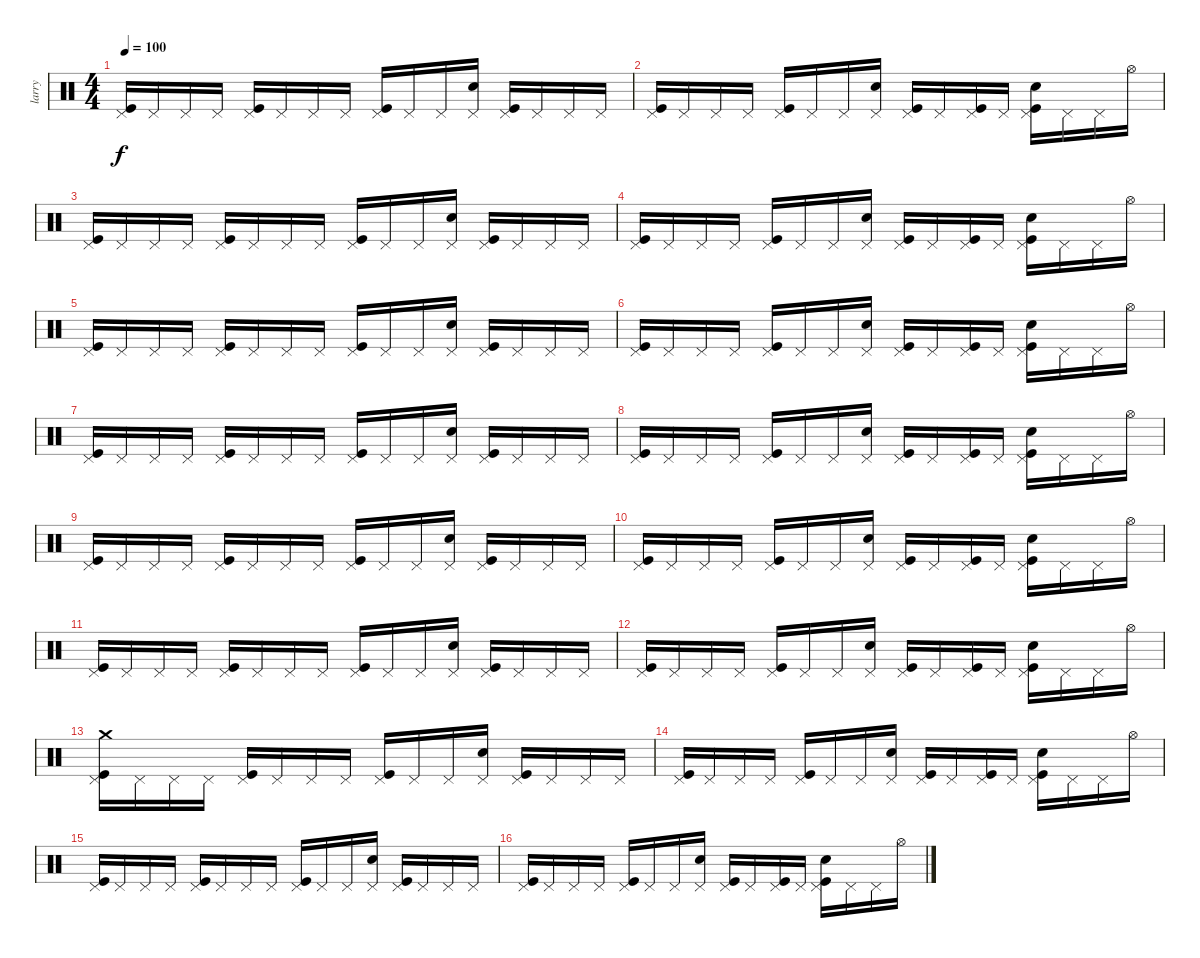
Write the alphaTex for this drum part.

\track ("larry" "larry") {instrument percussion}
\staff {score}
\articulation defaults
\ts (4 4)
\tempo 100
\clef neutral
\ks c
("Pedal Hi-Hat (hit)" "Kick (hit)").16{dy f} "Pedal Hi-Hat (hit)".16 "Pedal Hi-Hat (hit)".16 "Pedal Hi-Hat (hit)".16 ("Pedal Hi-Hat (hit)" "Kick (hit)").16 "Pedal Hi-Hat (hit)".16 "Pedal Hi-Hat (hit)".16 "Pedal Hi-Hat (hit)".16 ("Pedal Hi-Hat (hit)" "Kick (hit)").16 "Pedal Hi-Hat (hit)".16 "Pedal Hi-Hat (hit)".16 ("Pedal Hi-Hat (hit)" "Metronome (bell)").16 ("Pedal Hi-Hat (hit)" "Kick (hit)").16 "Pedal Hi-Hat (hit)".16 "Pedal Hi-Hat (hit)".16 "Pedal Hi-Hat (hit)".16 |
("Pedal Hi-Hat (hit)" "Kick (hit)").16 "Pedal Hi-Hat (hit)".16 "Pedal Hi-Hat (hit)".16 "Pedal Hi-Hat (hit)".16 ("Pedal Hi-Hat (hit)" "Kick (hit)").16 "Pedal Hi-Hat (hit)".16 "Pedal Hi-Hat (hit)".16 ("Pedal Hi-Hat (hit)" "Metronome (bell)").16 ("Pedal Hi-Hat (hit)" "Kick (hit)").16 "Pedal Hi-Hat (hit)".16 ("Pedal Hi-Hat (hit)" "Kick (hit)").16 "Pedal Hi-Hat (hit)".16 ("Pedal Hi-Hat (hit)" "Kick (hit)" "Metronome (bell)").16 "Pedal Hi-Hat (hit)".16 "Pedal Hi-Hat (hit)".16 "Hi-Hat (open)".16 |
("Pedal Hi-Hat (hit)" "Kick (hit)").16 "Pedal Hi-Hat (hit)".16 "Pedal Hi-Hat (hit)".16 "Pedal Hi-Hat (hit)".16 ("Pedal Hi-Hat (hit)" "Kick (hit)").16 "Pedal Hi-Hat (hit)".16 "Pedal Hi-Hat (hit)".16 "Pedal Hi-Hat (hit)".16 ("Pedal Hi-Hat (hit)" "Kick (hit)").16 "Pedal Hi-Hat (hit)".16 "Pedal Hi-Hat (hit)".16 ("Pedal Hi-Hat (hit)" "Metronome (bell)").16 ("Pedal Hi-Hat (hit)" "Kick (hit)").16 "Pedal Hi-Hat (hit)".16 "Pedal Hi-Hat (hit)".16 "Pedal Hi-Hat (hit)".16 |
("Pedal Hi-Hat (hit)" "Kick (hit)").16 "Pedal Hi-Hat (hit)".16 "Pedal Hi-Hat (hit)".16 "Pedal Hi-Hat (hit)".16 ("Pedal Hi-Hat (hit)" "Kick (hit)").16 "Pedal Hi-Hat (hit)".16 "Pedal Hi-Hat (hit)".16 ("Pedal Hi-Hat (hit)" "Metronome (bell)").16 ("Pedal Hi-Hat (hit)" "Kick (hit)").16 "Pedal Hi-Hat (hit)".16 ("Pedal Hi-Hat (hit)" "Kick (hit)").16 "Pedal Hi-Hat (hit)".16 ("Pedal Hi-Hat (hit)" "Kick (hit)" "Metronome (bell)").16 "Pedal Hi-Hat (hit)".16 "Pedal Hi-Hat (hit)".16 "Hi-Hat (open)".16 |
("Pedal Hi-Hat (hit)" "Kick (hit)").16 "Pedal Hi-Hat (hit)".16 "Pedal Hi-Hat (hit)".16 "Pedal Hi-Hat (hit)".16 ("Pedal Hi-Hat (hit)" "Kick (hit)").16 "Pedal Hi-Hat (hit)".16 "Pedal Hi-Hat (hit)".16 "Pedal Hi-Hat (hit)".16 ("Pedal Hi-Hat (hit)" "Kick (hit)").16 "Pedal Hi-Hat (hit)".16 "Pedal Hi-Hat (hit)".16 ("Pedal Hi-Hat (hit)" "Metronome (bell)").16 ("Pedal Hi-Hat (hit)" "Kick (hit)").16 "Pedal Hi-Hat (hit)".16 "Pedal Hi-Hat (hit)".16 "Pedal Hi-Hat (hit)".16 |
("Pedal Hi-Hat (hit)" "Kick (hit)").16 "Pedal Hi-Hat (hit)".16 "Pedal Hi-Hat (hit)".16 "Pedal Hi-Hat (hit)".16 ("Pedal Hi-Hat (hit)" "Kick (hit)").16 "Pedal Hi-Hat (hit)".16 "Pedal Hi-Hat (hit)".16 ("Pedal Hi-Hat (hit)" "Metronome (bell)").16 ("Pedal Hi-Hat (hit)" "Kick (hit)").16 "Pedal Hi-Hat (hit)".16 ("Pedal Hi-Hat (hit)" "Kick (hit)").16 "Pedal Hi-Hat (hit)".16 ("Pedal Hi-Hat (hit)" "Kick (hit)" "Metronome (bell)").16 "Pedal Hi-Hat (hit)".16 "Pedal Hi-Hat (hit)".16 "Hi-Hat (open)".16 |
("Pedal Hi-Hat (hit)" "Kick (hit)").16 "Pedal Hi-Hat (hit)".16 "Pedal Hi-Hat (hit)".16 "Pedal Hi-Hat (hit)".16 ("Pedal Hi-Hat (hit)" "Kick (hit)").16 "Pedal Hi-Hat (hit)".16 "Pedal Hi-Hat (hit)".16 "Pedal Hi-Hat (hit)".16 ("Pedal Hi-Hat (hit)" "Kick (hit)").16 "Pedal Hi-Hat (hit)".16 "Pedal Hi-Hat (hit)".16 ("Pedal Hi-Hat (hit)" "Metronome (bell)").16 ("Pedal Hi-Hat (hit)" "Kick (hit)").16 "Pedal Hi-Hat (hit)".16 "Pedal Hi-Hat (hit)".16 "Pedal Hi-Hat (hit)".16 |
("Pedal Hi-Hat (hit)" "Kick (hit)").16 "Pedal Hi-Hat (hit)".16 "Pedal Hi-Hat (hit)".16 "Pedal Hi-Hat (hit)".16 ("Pedal Hi-Hat (hit)" "Kick (hit)").16 "Pedal Hi-Hat (hit)".16 "Pedal Hi-Hat (hit)".16 ("Pedal Hi-Hat (hit)" "Metronome (bell)").16 ("Pedal Hi-Hat (hit)" "Kick (hit)").16 "Pedal Hi-Hat (hit)".16 ("Pedal Hi-Hat (hit)" "Kick (hit)").16 "Pedal Hi-Hat (hit)".16 ("Pedal Hi-Hat (hit)" "Kick (hit)" "Metronome (bell)").16 "Pedal Hi-Hat (hit)".16 "Pedal Hi-Hat (hit)".16 "Hi-Hat (open)".16 |
("Pedal Hi-Hat (hit)" "Kick (hit)").16 "Pedal Hi-Hat (hit)".16 "Pedal Hi-Hat (hit)".16 "Pedal Hi-Hat (hit)".16 ("Pedal Hi-Hat (hit)" "Kick (hit)").16 "Pedal Hi-Hat (hit)".16 "Pedal Hi-Hat (hit)".16 "Pedal Hi-Hat (hit)".16 ("Pedal Hi-Hat (hit)" "Kick (hit)").16 "Pedal Hi-Hat (hit)".16 "Pedal Hi-Hat (hit)".16 ("Pedal Hi-Hat (hit)" "Metronome (bell)").16 ("Pedal Hi-Hat (hit)" "Kick (hit)").16 "Pedal Hi-Hat (hit)".16 "Pedal Hi-Hat (hit)".16 "Pedal Hi-Hat (hit)".16 |
("Pedal Hi-Hat (hit)" "Kick (hit)").16 "Pedal Hi-Hat (hit)".16 "Pedal Hi-Hat (hit)".16 "Pedal Hi-Hat (hit)".16 ("Pedal Hi-Hat (hit)" "Kick (hit)").16 "Pedal Hi-Hat (hit)".16 "Pedal Hi-Hat (hit)".16 ("Pedal Hi-Hat (hit)" "Metronome (bell)").16 ("Pedal Hi-Hat (hit)" "Kick (hit)").16 "Pedal Hi-Hat (hit)".16 ("Pedal Hi-Hat (hit)" "Kick (hit)").16 "Pedal Hi-Hat (hit)".16 ("Pedal Hi-Hat (hit)" "Kick (hit)" "Metronome (bell)").16 "Pedal Hi-Hat (hit)".16 "Pedal Hi-Hat (hit)".16 "Hi-Hat (open)".16 |
("Pedal Hi-Hat (hit)" "Kick (hit)").16 "Pedal Hi-Hat (hit)".16 "Pedal Hi-Hat (hit)".16 "Pedal Hi-Hat (hit)".16 ("Pedal Hi-Hat (hit)" "Kick (hit)").16 "Pedal Hi-Hat (hit)".16 "Pedal Hi-Hat (hit)".16 "Pedal Hi-Hat (hit)".16 ("Pedal Hi-Hat (hit)" "Kick (hit)").16 "Pedal Hi-Hat (hit)".16 "Pedal Hi-Hat (hit)".16 ("Pedal Hi-Hat (hit)" "Metronome (bell)").16 ("Pedal Hi-Hat (hit)" "Kick (hit)").16 "Pedal Hi-Hat (hit)".16 "Pedal Hi-Hat (hit)".16 "Pedal Hi-Hat (hit)".16 |
("Pedal Hi-Hat (hit)" "Kick (hit)").16 "Pedal Hi-Hat (hit)".16 "Pedal Hi-Hat (hit)".16 "Pedal Hi-Hat (hit)".16 ("Pedal Hi-Hat (hit)" "Kick (hit)").16 "Pedal Hi-Hat (hit)".16 "Pedal Hi-Hat (hit)".16 ("Pedal Hi-Hat (hit)" "Metronome (bell)").16 ("Pedal Hi-Hat (hit)" "Kick (hit)").16 "Pedal Hi-Hat (hit)".16 ("Pedal Hi-Hat (hit)" "Kick (hit)").16 "Pedal Hi-Hat (hit)".16 ("Pedal Hi-Hat (hit)" "Kick (hit)" "Metronome (bell)").16 "Pedal Hi-Hat (hit)".16 "Pedal Hi-Hat (hit)".16 "Hi-Hat (open)".16 |
("Pedal Hi-Hat (hit)" "Crash medium (hit)" "Kick (hit)").16 "Pedal Hi-Hat (hit)".16 "Pedal Hi-Hat (hit)".16 "Pedal Hi-Hat (hit)".16 ("Pedal Hi-Hat (hit)" "Kick (hit)").16 "Pedal Hi-Hat (hit)".16 "Pedal Hi-Hat (hit)".16 "Pedal Hi-Hat (hit)".16 ("Pedal Hi-Hat (hit)" "Kick (hit)").16 "Pedal Hi-Hat (hit)".16 "Pedal Hi-Hat (hit)".16 ("Pedal Hi-Hat (hit)" "Metronome (bell)").16 ("Pedal Hi-Hat (hit)" "Kick (hit)").16 "Pedal Hi-Hat (hit)".16 "Pedal Hi-Hat (hit)".16 "Pedal Hi-Hat (hit)".16 |
("Pedal Hi-Hat (hit)" "Kick (hit)").16 "Pedal Hi-Hat (hit)".16 "Pedal Hi-Hat (hit)".16 "Pedal Hi-Hat (hit)".16 ("Pedal Hi-Hat (hit)" "Kick (hit)").16 "Pedal Hi-Hat (hit)".16 "Pedal Hi-Hat (hit)".16 ("Pedal Hi-Hat (hit)" "Metronome (bell)").16 ("Pedal Hi-Hat (hit)" "Kick (hit)").16 "Pedal Hi-Hat (hit)".16 ("Pedal Hi-Hat (hit)" "Kick (hit)").16 "Pedal Hi-Hat (hit)".16 ("Pedal Hi-Hat (hit)" "Kick (hit)" "Metronome (bell)").16 "Pedal Hi-Hat (hit)".16 "Pedal Hi-Hat (hit)".16 "Hi-Hat (open)".16 |
("Pedal Hi-Hat (hit)" "Kick (hit)").16 "Pedal Hi-Hat (hit)".16 "Pedal Hi-Hat (hit)".16 "Pedal Hi-Hat (hit)".16 ("Pedal Hi-Hat (hit)" "Kick (hit)").16 "Pedal Hi-Hat (hit)".16 "Pedal Hi-Hat (hit)".16 "Pedal Hi-Hat (hit)".16 ("Pedal Hi-Hat (hit)" "Kick (hit)").16 "Pedal Hi-Hat (hit)".16 "Pedal Hi-Hat (hit)".16 ("Pedal Hi-Hat (hit)" "Metronome (bell)").16 ("Pedal Hi-Hat (hit)" "Kick (hit)").16 "Pedal Hi-Hat (hit)".16 "Pedal Hi-Hat (hit)".16 "Pedal Hi-Hat (hit)".16 |
("Pedal Hi-Hat (hit)" "Kick (hit)").16 "Pedal Hi-Hat (hit)".16 "Pedal Hi-Hat (hit)".16 "Pedal Hi-Hat (hit)".16 ("Pedal Hi-Hat (hit)" "Kick (hit)").16 "Pedal Hi-Hat (hit)".16 "Pedal Hi-Hat (hit)".16 ("Pedal Hi-Hat (hit)" "Metronome (bell)").16 ("Pedal Hi-Hat (hit)" "Kick (hit)").16 "Pedal Hi-Hat (hit)".16 ("Pedal Hi-Hat (hit)" "Kick (hit)").16 "Pedal Hi-Hat (hit)".16 ("Pedal Hi-Hat (hit)" "Kick (hit)" "Metronome (bell)").16 "Pedal Hi-Hat (hit)".16 "Pedal Hi-Hat (hit)".16 "Hi-Hat (open)".16
